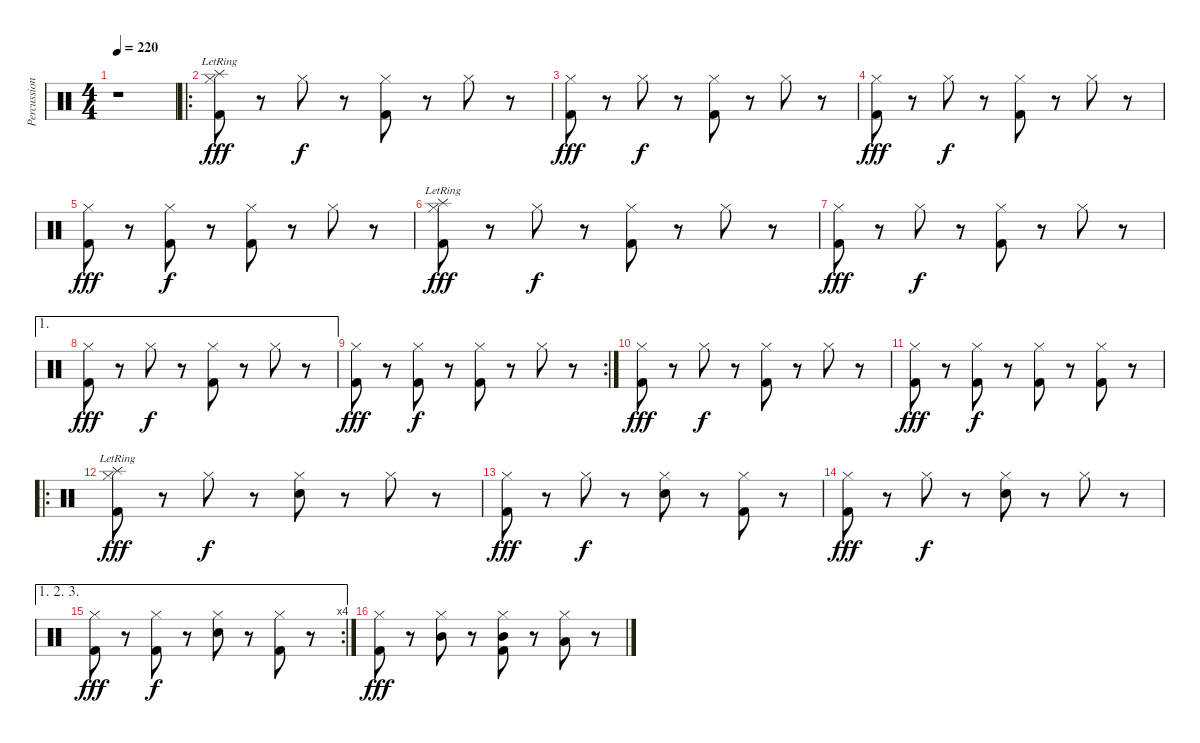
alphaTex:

\track ("Percussion" "Percussion") {instrument percussion}
\staff {score}
\articulation defaults
\ts (4 4)
\tempo 220
\clef neutral
\ks c
r.1{dy fff} |
\ro
("Hi-Hat (closed)" "Splash (hit)"{lr} "Kick (hit) 2").8 r.8 "Hi-Hat (closed)".8{dy f} r.8 ("Hi-Hat (closed)" "Kick (hit) 2").8 r.8 "Hi-Hat (closed)".8 r.8 |
("Hi-Hat (closed)" "Kick (hit) 2").8{dy fff} r.8 "Hi-Hat (closed)".8{dy f} r.8 ("Hi-Hat (closed)" "Kick (hit) 2").8 r.8 "Hi-Hat (closed)".8 r.8 |
("Hi-Hat (closed)" "Kick (hit) 2").8{dy fff} r.8 "Hi-Hat (closed)".8{dy f} r.8 ("Hi-Hat (closed)" "Kick (hit) 2").8 r.8 "Hi-Hat (closed)".8 r.8 |
("Hi-Hat (closed)" "Kick (hit) 2").8{dy fff} r.8 ("Hi-Hat (closed)" "Kick (hit) 2").8{dy f} r.8 ("Hi-Hat (closed)" "Kick (hit) 2").8 r.8 "Hi-Hat (closed)".8 r.8 |
("Hi-Hat (closed)" "Splash (hit)"{lr} "Kick (hit) 2").8{dy fff} r.8 "Hi-Hat (closed)".8{dy f} r.8 ("Hi-Hat (closed)" "Kick (hit) 2").8 r.8 "Hi-Hat (closed)".8 r.8 |
("Hi-Hat (closed)" "Kick (hit) 2").8{dy fff} r.8 "Hi-Hat (closed)".8{dy f} r.8 ("Hi-Hat (closed)" "Kick (hit) 2").8 r.8 "Hi-Hat (closed)".8 r.8 |
\ae 1
("Hi-Hat (closed)" "Kick (hit) 2").8{dy fff} r.8 "Hi-Hat (closed)".8{dy f} r.8 ("Hi-Hat (closed)" "Kick (hit) 2").8 r.8 "Hi-Hat (closed)".8 r.8 |
\rc 2
("Hi-Hat (closed)" "Kick (hit) 2").8{dy fff} r.8 ("Hi-Hat (closed)" "Kick (hit) 2").8{dy f} r.8 ("Hi-Hat (closed)" "Kick (hit) 2").8 r.8 "Hi-Hat (closed)".8 r.8 |
("Hi-Hat (closed)" "Kick (hit) 2").8{dy fff} r.8 "Hi-Hat (closed)".8{dy f} r.8 ("Hi-Hat (closed)" "Kick (hit) 2").8 r.8 "Hi-Hat (closed)".8 r.8 |
("Hi-Hat (closed)" "Kick (hit) 2").8{dy fff} r.8 ("Hi-Hat (closed)" "Kick (hit) 2").8{dy f} r.8 ("Hi-Hat (closed)" "Kick (hit) 2").8 r.8 ("Hi-Hat (closed)" "Kick (hit) 2").8 r.8 |
\ro
("Hi-Hat (closed)" "Splash (hit)"{lr} "Kick (hit) 2").8{dy fff} r.8 "Hi-Hat (closed)".8{dy f} r.8 ("Hi-Hat (closed)" "Snare (hit) 2").8 r.8 "Hi-Hat (closed)".8 r.8 |
("Hi-Hat (closed)" "Kick (hit) 2").8{dy fff} r.8 "Hi-Hat (closed)".8{dy f} r.8 ("Hi-Hat (closed)" "Snare (hit) 2").8 r.8 ("Hi-Hat (closed)" "Kick (hit) 2").8 r.8 |
("Hi-Hat (closed)" "Kick (hit) 2").8{dy fff} r.8 "Hi-Hat (closed)".8{dy f} r.8 ("Hi-Hat (closed)" "Snare (hit) 2").8 r.8 "Hi-Hat (closed)".8 r.8 |
\ae (1 2 3)
\rc 4
("Hi-Hat (closed)" "Kick (hit) 2").8{dy fff} r.8 ("Hi-Hat (closed)" "Kick (hit) 2").8{dy f} r.8 ("Hi-Hat (closed)" "Snare (hit) 2").8 r.8 ("Hi-Hat (closed)" "Kick (hit) 2").8 r.8 |
("Hi-Hat (closed)" "Kick (hit) 2").8{dy fff} r.8 ("Hi-Hat (closed)" "Mid Tom (hit)").8 r.8 ("Hi-Hat (closed)" "Mid Tom (hit)" "Kick (hit) 2").8 r.8 ("Hi-Hat (closed)" "Low Tom (hit)").8 r.8
